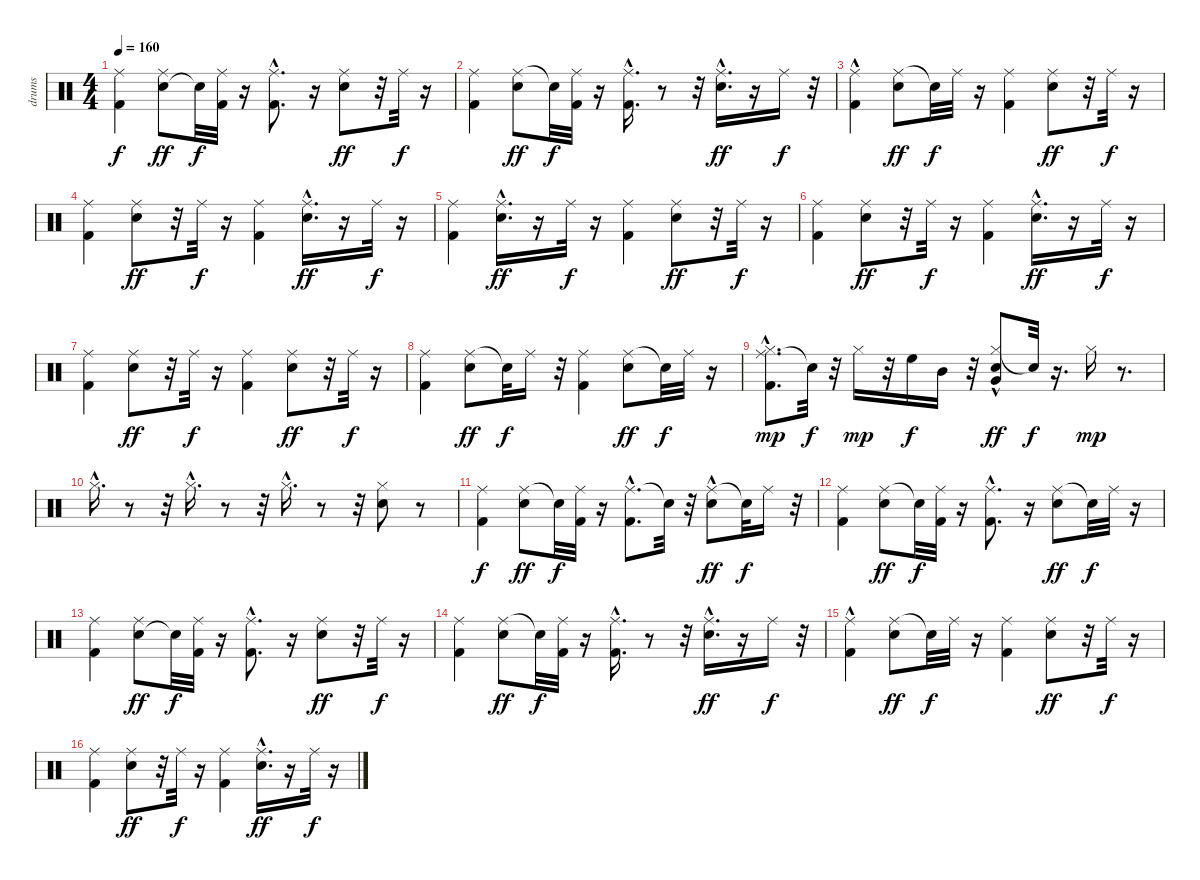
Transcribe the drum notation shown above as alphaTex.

\track ("drums" "drums") {instrument percussion}
\staff {score}
\articulation defaults
\ts (4 4)
\tempo 160
\clef neutral
\ks c
("Ride (middle)" "Kick (hit) 2").4{dy f} ("Snare (hit) 2" "Ride (middle)").8{dy ff} "Snare (hit)"{t}.32{dy f} ("Ride (middle)" "Kick (hit) 2").32 r.16 ("Ride (middle)" "Kick (hit) 2"{hac}).8{d} r.16 ("Ride (middle)" "Snare (hit) 2").8{dy ff} r.32 "Ride (middle)".32{dy f} r.16 |
("Ride (middle)" "Kick (hit) 2").4 ("Ride (middle)" "Snare (hit) 2").8{dy ff} "Snare (hit)"{t}.32{dy f} ("Ride (middle)" "Kick (hit) 2").32 r.16 ("Ride (middle)" "Kick (hit) 2"{hac}).16{d} r.8 r.32 ("Ride (middle)" "Snare (hit) 2"{hac}).16{d dy ff} r.16 "Ride (middle)".16{dy f} r.32 |
("Ride (middle)"{hac} "Kick (hit) 2").4 ("Ride (middle)" "Snare (hit) 2").8{dy ff} "Snare (hit)"{t}.32{dy f} "Ride (middle)".32 r.16 ("Ride (middle)" "Kick (hit) 2").4 ("Snare (hit) 2" "Ride (middle)").8{dy ff} r.32 "Ride (middle)".32{dy f} r.16 |
("Ride (middle)" "Kick (hit) 2").4 ("Ride (middle)" "Snare (hit) 2").8{dy ff} r.32 "Ride (middle)".32{dy f} r.16 ("Ride (middle)" "Kick (hit) 2").4 ("Ride (middle)" "Snare (hit) 2"{hac}).16{d dy ff} r.16 "Ride (middle)".32{dy f} r.16 |
("Ride (middle)" "Kick (hit) 2").4 ("Ride (middle)" "Snare (hit) 2"{hac}).16{d dy ff} r.16 "Ride (middle)".32{dy f} r.16 ("Ride (middle)" "Kick (hit) 2").4 ("Snare (hit) 2" "Ride (middle)").8{dy ff} r.32 "Ride (middle)".32{dy f} r.16 |
("Ride (middle)" "Kick (hit) 2").4 ("Ride (middle)" "Snare (hit) 2").8{dy ff} r.32 "Ride (middle)".32{dy f} r.16 ("Ride (middle)" "Kick (hit) 2").4 ("Ride (middle)" "Snare (hit) 2"{hac}).16{d dy ff} r.16 "Ride (middle)".32{dy f} r.16 |
("Ride (middle)" "Kick (hit) 2").4 ("Snare (hit) 2" "Ride (middle)").8{dy ff} r.32 "Ride (middle)".32{dy f} r.16 ("Ride (middle)" "Kick (hit) 2").4 ("Ride (middle)" "Snare (hit) 2").8{dy ff} r.32 "Ride (middle)".32{dy f} r.16 |
("Ride (middle)" "Kick (hit) 2").4 ("Ride (middle)" "Snare (hit) 2").8{dy ff} "Snare (hit)"{t}.32{dy f} "Ride (middle)".16 r.32 ("Ride (middle)" "Kick (hit) 2").4 ("Ride (middle)" "Snare (hit) 2").8{dy ff} "Snare (hit)"{t}.32{dy f} "Ride (middle)".32 r.16 |
("Ride (middle)" "Kick (hit) 2"{hac} "Hi-Hat (closed)").8{d dy mp} "Snare (hit)"{t}.32{dy f} r.32 "Hi-Hat (closed)".16{dy mp} r.32 "High Floor Tom (hit)".16{dy f} "Mid Tom (hit)".16 r.32 ("Hi-Hat (closed)" "Snare (hit) 2" "Very Low Tom (hit)"{hac}).8{dy ff} "Snare (hit)"{t}.32{dy f} r.16{d} "Hi-Hat (closed)".16{dy mp} r.8{d} |
"Hi-Hat (closed)"{hac}.16{d} r.8 r.32 "Hi-Hat (closed)"{hac}.16{d} r.8 r.32 "Hi-Hat (closed)"{hac}.16{d} r.8 r.32 ("Snare (hit) 2" "Hi-Hat (closed)").8 r.8 |
("Kick (hit) 2" "Ride (middle)").4{dy f} ("Ride (middle)" "Snare (hit) 2").8{dy ff} "Snare (hit)"{t}.32{dy f} ("Ride (middle)" "Kick (hit) 2").32 r.16 ("Ride (middle)" "Kick (hit) 2"{hac}).8{d} "Snare (hit)"{t}.32 r.32 ("Ride (middle)"{hac} "Snare (hit) 2").8{dy ff} "Snare (hit)"{t}.32{dy f} "Ride (middle)".16 r.32 |
("Kick (hit) 2" "Ride (middle)").4 ("Ride (middle)" "Snare (hit) 2").8{dy ff} "Snare (hit)"{t}.32{dy f} ("Ride (middle)" "Kick (hit) 2").32 r.16 ("Ride (middle)" "Kick (hit) 2"{hac}).8{d} r.16 ("Ride (middle)" "Snare (hit) 2").8{dy ff} "Snare (hit)"{t}.32{dy f} "Ride (middle)".32 r.16 |
("Ride (middle)" "Kick (hit) 2").4 ("Snare (hit) 2" "Ride (middle)").8{dy ff} "Snare (hit)"{t}.32{dy f} ("Ride (middle)" "Kick (hit) 2").32 r.16 ("Ride (middle)" "Kick (hit) 2"{hac}).8{d} r.16 ("Ride (middle)" "Snare (hit) 2").8{dy ff} r.32 "Ride (middle)".32{dy f} r.16 |
("Ride (middle)" "Kick (hit) 2").4 ("Ride (middle)" "Snare (hit) 2").8{dy ff} "Snare (hit)"{t}.32{dy f} ("Ride (middle)" "Kick (hit) 2").32 r.16 ("Ride (middle)" "Kick (hit) 2"{hac}).16{d} r.8 r.32 ("Ride (middle)" "Snare (hit) 2"{hac}).16{d dy ff} r.16 "Ride (middle)".16{dy f} r.32 |
("Ride (middle)"{hac} "Kick (hit) 2").4 ("Ride (middle)" "Snare (hit) 2").8{dy ff} "Snare (hit)"{t}.32{dy f} "Ride (middle)".32 r.16 ("Ride (middle)" "Kick (hit) 2").4 ("Snare (hit) 2" "Ride (middle)").8{dy ff} r.32 "Ride (middle)".32{dy f} r.16 |
("Ride (middle)" "Kick (hit) 2").4 ("Ride (middle)" "Snare (hit) 2").8{dy ff} r.32 "Ride (middle)".32{dy f} r.16 ("Ride (middle)" "Kick (hit) 2").4 ("Ride (middle)" "Snare (hit) 2"{hac}).16{d dy ff} r.16 "Ride (middle)".32{dy f} r.16
